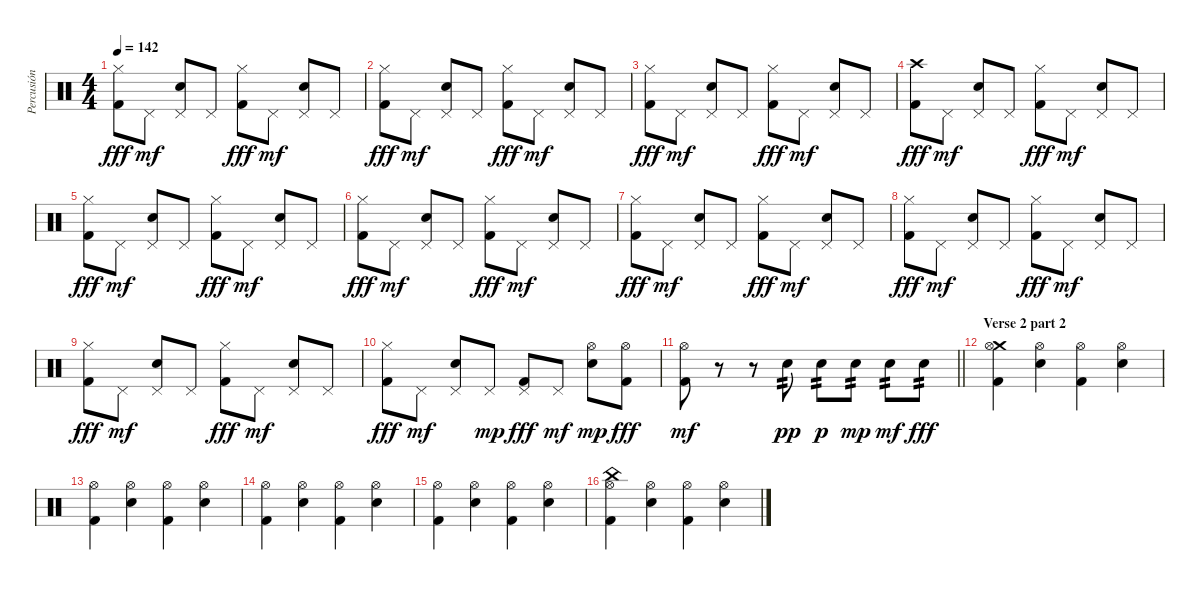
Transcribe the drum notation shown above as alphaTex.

\track ("Percusión" "Percusión") {instrument percussion}
\staff {score}
\articulation defaults
\ts (4 4)
\tempo 142
\clef neutral
\ks c
("Hi-Hat (closed)" "Kick (hit) 2").8{dy fff} "Pedal Hi-Hat (hit)".8{dy mf} ("Pedal Hi-Hat (hit)" "Electric Snare (hit)").8 "Pedal Hi-Hat (hit)".8 ("Hi-Hat (closed)" "Kick (hit) 2").8{dy fff} "Pedal Hi-Hat (hit)".8{dy mf} ("Pedal Hi-Hat (hit)" "Electric Snare (hit)").8 "Pedal Hi-Hat (hit)".8 |
("Hi-Hat (closed)" "Kick (hit) 2").8{dy fff} "Pedal Hi-Hat (hit)".8{dy mf} ("Pedal Hi-Hat (hit)" "Electric Snare (hit)").8 "Pedal Hi-Hat (hit)".8 ("Hi-Hat (closed)" "Kick (hit) 2").8{dy fff} "Pedal Hi-Hat (hit)".8{dy mf} ("Pedal Hi-Hat (hit)" "Electric Snare (hit)").8 "Pedal Hi-Hat (hit)".8 |
("Hi-Hat (closed)" "Kick (hit) 2").8{dy fff} "Pedal Hi-Hat (hit)".8{dy mf} ("Pedal Hi-Hat (hit)" "Electric Snare (hit)").8 "Pedal Hi-Hat (hit)".8 ("Hi-Hat (closed)" "Kick (hit) 2").8{dy fff} "Pedal Hi-Hat (hit)".8{dy mf} ("Pedal Hi-Hat (hit)" "Electric Snare (hit)").8 "Pedal Hi-Hat (hit)".8 |
("Crash high (hit)" "Kick (hit) 2").8{dy fff} "Pedal Hi-Hat (hit)".8{dy mf} ("Pedal Hi-Hat (hit)" "Electric Snare (hit)").8 "Pedal Hi-Hat (hit)".8 ("Hi-Hat (closed)" "Kick (hit) 2").8{dy fff} "Pedal Hi-Hat (hit)".8{dy mf} ("Pedal Hi-Hat (hit)" "Electric Snare (hit)").8 "Pedal Hi-Hat (hit)".8 |
("Hi-Hat (closed)" "Kick (hit) 2").8{dy fff} "Pedal Hi-Hat (hit)".8{dy mf} ("Pedal Hi-Hat (hit)" "Electric Snare (hit)").8 "Pedal Hi-Hat (hit)".8 ("Hi-Hat (closed)" "Kick (hit) 2").8{dy fff} "Pedal Hi-Hat (hit)".8{dy mf} ("Pedal Hi-Hat (hit)" "Electric Snare (hit)").8 "Pedal Hi-Hat (hit)".8 |
("Hi-Hat (closed)" "Kick (hit) 2").8{dy fff} "Pedal Hi-Hat (hit)".8{dy mf} ("Pedal Hi-Hat (hit)" "Electric Snare (hit)").8 "Pedal Hi-Hat (hit)".8 ("Hi-Hat (closed)" "Kick (hit) 2").8{dy fff} "Pedal Hi-Hat (hit)".8{dy mf} ("Pedal Hi-Hat (hit)" "Electric Snare (hit)").8 "Pedal Hi-Hat (hit)".8 |
("Hi-Hat (closed)" "Kick (hit) 2").8{dy fff} "Pedal Hi-Hat (hit)".8{dy mf} ("Pedal Hi-Hat (hit)" "Electric Snare (hit)").8 "Pedal Hi-Hat (hit)".8 ("Hi-Hat (closed)" "Kick (hit) 2").8{dy fff} "Pedal Hi-Hat (hit)".8{dy mf} ("Pedal Hi-Hat (hit)" "Electric Snare (hit)").8 "Pedal Hi-Hat (hit)".8 |
("Hi-Hat (closed)" "Kick (hit) 2").8{dy fff} "Pedal Hi-Hat (hit)".8{dy mf} ("Pedal Hi-Hat (hit)" "Electric Snare (hit)").8 "Pedal Hi-Hat (hit)".8 ("Hi-Hat (closed)" "Kick (hit) 2").8{dy fff} "Pedal Hi-Hat (hit)".8{dy mf} ("Pedal Hi-Hat (hit)" "Electric Snare (hit)").8 "Pedal Hi-Hat (hit)".8 |
("Hi-Hat (closed)" "Kick (hit) 2").8{dy fff} "Pedal Hi-Hat (hit)".8{dy mf} ("Pedal Hi-Hat (hit)" "Electric Snare (hit)").8 "Pedal Hi-Hat (hit)".8 ("Hi-Hat (closed)" "Kick (hit) 2").8{dy fff} "Pedal Hi-Hat (hit)".8{dy mf} ("Pedal Hi-Hat (hit)" "Electric Snare (hit)").8 "Pedal Hi-Hat (hit)".8 |
("Hi-Hat (closed)" "Kick (hit) 2").8{dy fff} "Pedal Hi-Hat (hit)".8{dy mf} ("Pedal Hi-Hat (hit)" "Electric Snare (hit)").8 "Pedal Hi-Hat (hit)".8{dy mp} ("Pedal Hi-Hat (hit)" "Kick (hit) 2").8{dy fff} "Pedal Hi-Hat (hit)".8{dy mf} ("Hi-Hat (open)" "Electric Snare (hit)").8{dy mp} ("Hi-Hat (open)" "Kick (hit) 2").8{dy fff} |
\barLineRight lightlight
("Hi-Hat (open)" "Kick (hit) 2").8{dy mf} r.8 r.8 "Electric Snare (hit)".8{tp 2 dy pp} "Electric Snare (hit)".8{tp 2 dy p} "Electric Snare (hit)".8{tp 2 dy mp} "Electric Snare (hit)".8{tp 2 dy mf} "Electric Snare (hit)".8{tp 2 dy fff} |
\section ("" "Verse 2 part 2")
("Crash medium (hit)" "Hi-Hat (open)" "Kick (hit) 2").4 ("Hi-Hat (open)" "Electric Snare (hit)").4 ("Hi-Hat (open)" "Kick (hit) 2").4 ("Hi-Hat (open)" "Electric Snare (hit)").4 |
("Hi-Hat (open)" "Kick (hit) 2").4 ("Hi-Hat (open)" "Electric Snare (hit)").4 ("Hi-Hat (open)" "Kick (hit) 2").4 ("Hi-Hat (open)" "Electric Snare (hit)").4 |
("Hi-Hat (open)" "Kick (hit) 2").4 ("Hi-Hat (open)" "Electric Snare (hit)").4 ("Hi-Hat (open)" "Kick (hit) 2").4 ("Hi-Hat (open)" "Electric Snare (hit)").4 |
("Hi-Hat (open)" "Kick (hit) 2").4 ("Hi-Hat (open)" "Electric Snare (hit)").4 ("Hi-Hat (open)" "Kick (hit) 2").4 ("Hi-Hat (open)" "Electric Snare (hit)").4 |
("China (hit)" "Hi-Hat (open)" "Kick (hit) 2").4 ("Hi-Hat (open)" "Electric Snare (hit)").4 ("Hi-Hat (open)" "Kick (hit) 2").4 ("Hi-Hat (open)" "Electric Snare (hit)").4
